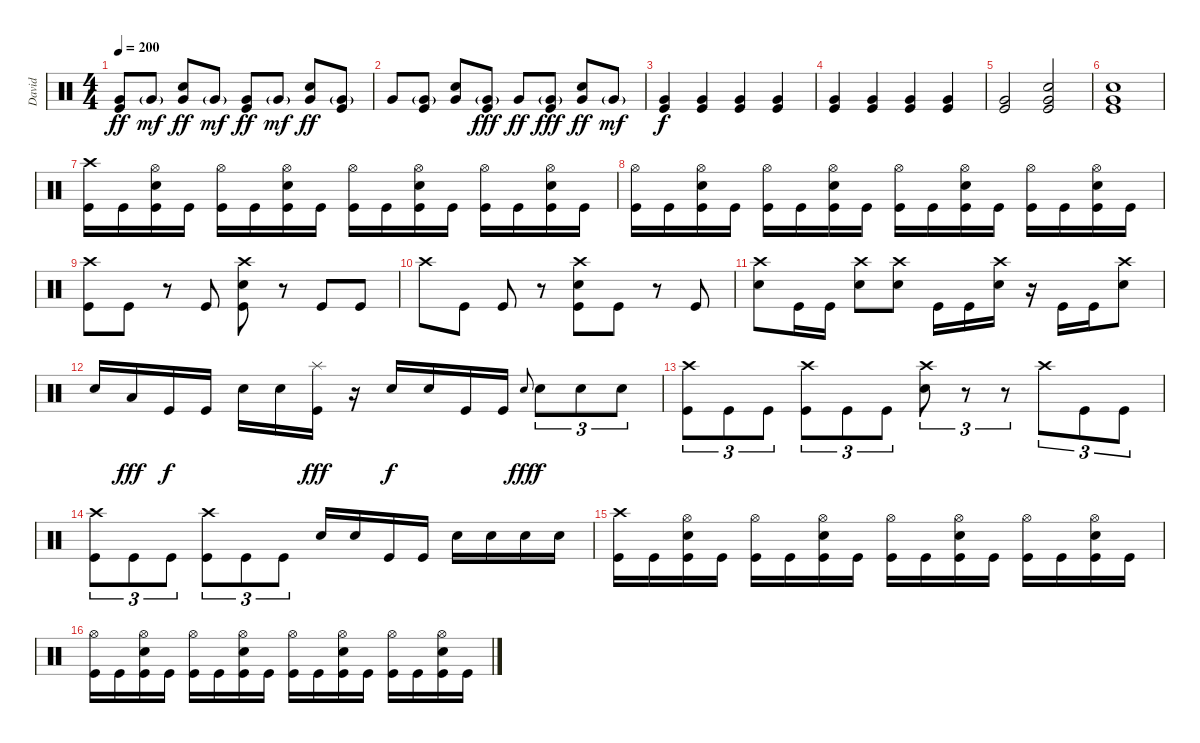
\track ("David" "David") {instrument percussion}
\staff {score}
\articulation defaults
\ts (4 4)
\tempo 200
\clef neutral
\ks c
("Very Low Tom (hit)" "Kick (hit)").8{dy ff} "Very Low Tom (hit)"{g}.8{dy mf} ("Very Low Tom (hit)" "Electric Snare (hit)").8{dy ff} "Very Low Tom (hit)"{g}.8{dy mf} ("Very Low Tom (hit)" "Kick (hit)").8{dy ff} "Very Low Tom (hit)"{g}.8{dy mf} ("Very Low Tom (hit)" "Electric Snare (hit)").8{dy ff} ("Very Low Tom (hit)"{g} "Kick (hit)").8 |
"Very Low Tom (hit)".8 ("Very Low Tom (hit)"{g} "Kick (hit)").8 ("Very Low Tom (hit)" "Electric Snare (hit)").8 ("Very Low Tom (hit)"{g} "Kick (hit)").8{dy fff} "Very Low Tom (hit)".8{dy ff} ("Very Low Tom (hit)"{g} "Kick (hit)").8{dy fff} ("Very Low Tom (hit)" "Electric Snare (hit)").8{dy ff} "Very Low Tom (hit)"{g}.8{dy mf} |
("Very Low Tom (hit)" "Kick (hit)").4{dy f} ("Very Low Tom (hit)" "Kick (hit)").4 ("Very Low Tom (hit)" "Kick (hit)").4 ("Very Low Tom (hit)" "Kick (hit)").4 |
("Very Low Tom (hit)" "Kick (hit)").4 ("Very Low Tom (hit)" "Kick (hit)").4 ("Very Low Tom (hit)" "Kick (hit)").4 ("Very Low Tom (hit)" "Kick (hit)").4 |
("Very Low Tom (hit)" "Kick (hit)").2 ("Very Low Tom (hit)" "Electric Snare (hit)" "Kick (hit)").2 |
("Very Low Tom (hit)" "Electric Snare (hit)" "Kick (hit)").1 |
("Crash high (hit)" "Kick (hit)").16 "Kick (hit)".16 ("Hi-Hat (open)" "Electric Snare (hit)" "Kick (hit)").16 "Kick (hit)".16 ("Hi-Hat (open)" "Kick (hit)").16 "Kick (hit)".16 ("Hi-Hat (open)" "Electric Snare (hit)" "Kick (hit)").16 "Kick (hit)".16 ("Hi-Hat (open)" "Kick (hit)").16 "Kick (hit)".16 ("Hi-Hat (open)" "Electric Snare (hit)" "Kick (hit)").16 "Kick (hit)".16 ("Hi-Hat (open)" "Kick (hit)").16 "Kick (hit)".16 ("Hi-Hat (open)" "Electric Snare (hit)" "Kick (hit)").16 "Kick (hit)".16 |
("Hi-Hat (open)" "Kick (hit)").16 "Kick (hit)".16 ("Hi-Hat (open)" "Electric Snare (hit)" "Kick (hit)").16 "Kick (hit)".16 ("Hi-Hat (open)" "Kick (hit)").16 "Kick (hit)".16 ("Hi-Hat (open)" "Electric Snare (hit)" "Kick (hit)").16 "Kick (hit)".16 ("Hi-Hat (open)" "Kick (hit)").16 "Kick (hit)".16 ("Hi-Hat (open)" "Electric Snare (hit)" "Kick (hit)").16 "Kick (hit)".16 ("Hi-Hat (open)" "Kick (hit)").16 "Kick (hit)".16 ("Hi-Hat (open)" "Electric Snare (hit)" "Kick (hit)").16 "Kick (hit)".16 |
("Crash high (hit)" "Kick (hit)").8 "Kick (hit)".8 r.8 "Kick (hit)".8 ("Crash high (hit)" "Electric Snare (hit)" "Kick (hit)").8 r.8 "Kick (hit)".8 "Kick (hit)".8 |
"Crash high (hit)".8 "Kick (hit)".8 "Kick (hit)".8 r.8 ("Crash high (hit)" "Electric Snare (hit)" "Kick (hit)").8 "Kick (hit)".8 r.8 "Kick (hit)".8 |
("Crash high (hit)" "Electric Snare (hit)").8 "Kick (hit)".16 "Kick (hit)".16 ("Crash high (hit)" "Electric Snare (hit)").8 ("Crash high (hit)" "Electric Snare (hit)").8 "Kick (hit)".16 "Kick (hit)".16 ("Crash high (hit)" "Electric Snare (hit)").16 r.16 "Kick (hit)".16 "Kick (hit)".16 ("Crash high (hit)" "Electric Snare (hit)").8 |
"Electric Snare (hit)".16 "Low Tom (hit)".16{dy fff} "Kick (hit)".16{dy f} "Kick (hit)".16 "Electric Snare (hit)".16 "Electric Snare (hit)".16 ("Splash (hit)" "Kick (hit)").16{dy fff} r.16 "Electric Snare (hit)".16{dy f} "Electric Snare (hit)".16 "Kick (hit)".16 "Kick (hit)".16 "Electric Snare (hit)".8{gr onbeat dy fff} "Electric Snare (hit)".8{tu (3 2) dy f} "Electric Snare (hit)".8{tu (3 2)} "Electric Snare (hit)".8{tu (3 2)} |
("Crash high (hit)" "Kick (hit)").8{tu (3 2)} "Kick (hit)".8{tu (3 2)} "Kick (hit)".8{tu (3 2)} ("Crash high (hit)" "Kick (hit)").8{tu (3 2)} "Kick (hit)".8{tu (3 2)} "Kick (hit)".8{tu (3 2)} ("Crash high (hit)" "Electric Snare (hit)").8{tu (3 2)} r.8{tu (3 2)} r.8{tu (3 2)} "Crash high (hit)".8{tu (3 2)} "Kick (hit)".8{tu (3 2)} "Kick (hit)".8{tu (3 2)} |
("Crash high (hit)" "Kick (hit)").8{tu (3 2)} "Kick (hit)".8{tu (3 2)} "Kick (hit)".8{tu (3 2)} ("Crash high (hit)" "Kick (hit)").8{tu (3 2)} "Kick (hit)".8{tu (3 2)} "Kick (hit)".8{tu (3 2)} "Electric Snare (hit)".16 "Electric Snare (hit)".16 "Kick (hit)".16 "Kick (hit)".16 "Electric Snare (hit)".16 "Electric Snare (hit)".16 "Electric Snare (hit)".16 "Electric Snare (hit)".16 |
("Crash high (hit)" "Kick (hit)").16 "Kick (hit)".16 ("Hi-Hat (open)" "Electric Snare (hit)" "Kick (hit)").16 "Kick (hit)".16 ("Hi-Hat (open)" "Kick (hit)").16 "Kick (hit)".16 ("Hi-Hat (open)" "Electric Snare (hit)" "Kick (hit)").16 "Kick (hit)".16 ("Hi-Hat (open)" "Kick (hit)").16 "Kick (hit)".16 ("Hi-Hat (open)" "Electric Snare (hit)" "Kick (hit)").16 "Kick (hit)".16 ("Hi-Hat (open)" "Kick (hit)").16 "Kick (hit)".16 ("Hi-Hat (open)" "Electric Snare (hit)" "Kick (hit)").16 "Kick (hit)".16 |
("Hi-Hat (open)" "Kick (hit)").16 "Kick (hit)".16 ("Hi-Hat (open)" "Electric Snare (hit)" "Kick (hit)").16 "Kick (hit)".16 ("Hi-Hat (open)" "Kick (hit)").16 "Kick (hit)".16 ("Hi-Hat (open)" "Electric Snare (hit)" "Kick (hit)").16 "Kick (hit)".16 ("Hi-Hat (open)" "Kick (hit)").16 "Kick (hit)".16 ("Hi-Hat (open)" "Electric Snare (hit)" "Kick (hit)").16 "Kick (hit)".16 ("Hi-Hat (open)" "Kick (hit)").16 "Kick (hit)".16 ("Hi-Hat (open)" "Electric Snare (hit)" "Kick (hit)").16 "Kick (hit)".16
